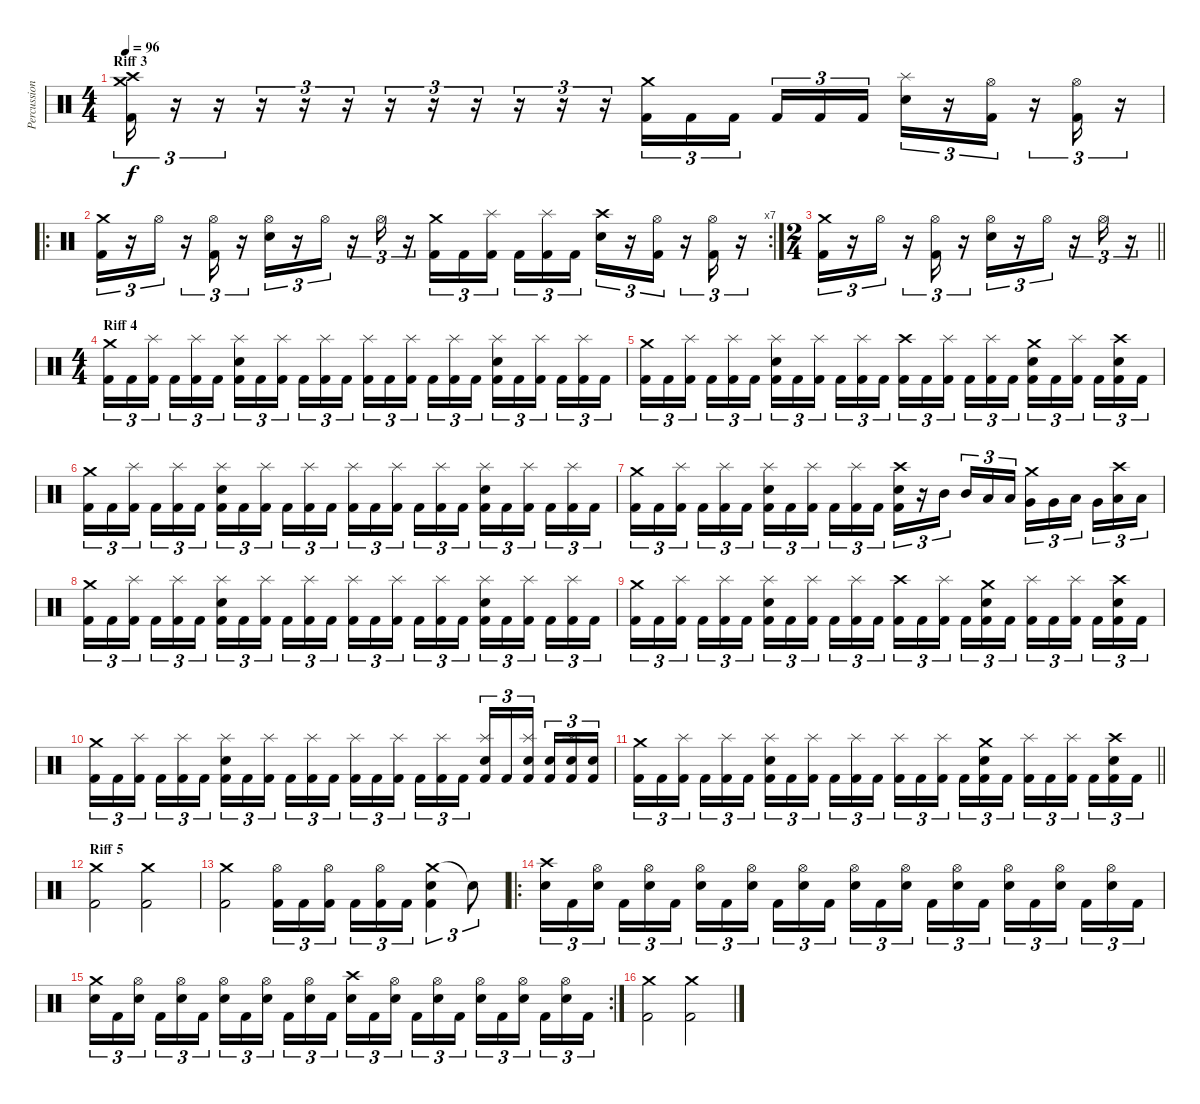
\track ("Percussions" "Percussion") {instrument percussion}
\staff {score}
\articulation defaults
\ts (4 4)
\section ("" "Riff 3")
\tempo 96
\clef neutral
\ks c
("Crash medium (hit)" "Crash high (hit)" "Kick (hit) 2").16{tu (3 2) dy f} r.16{tu (3 2)} r.16{tu (3 2)} r.16{tu (3 2)} r.16{tu (3 2)} r.16{tu (3 2)} r.16{tu (3 2)} r.16{tu (3 2)} r.16{tu (3 2)} r.16{tu (3 2)} r.16{tu (3 2)} r.16{tu (3 2)} ("Crash medium (hit)" "Kick (hit) 2").16{tu (3 2)} "Kick (hit) 2".16{tu (3 2)} "Kick (hit) 2".16{tu (3 2) beam splitsecondary} "Kick (hit) 2".16{tu (3 2)} "Kick (hit) 2".16{tu (3 2)} "Kick (hit) 2".16{tu (3 2)} ("Splash (hit)" "Snare (hit) 2").16{tu (3 2)} r.16{tu (3 2)} ("Hi-Hat (open)" "Kick (hit) 2").16{tu (3 2)} r.16{tu (3 2)} ("Hi-Hat (open)" "Kick (hit) 2").16{tu (3 2)} r.16{tu (3 2)} |
\ro
\rc 7
("Crash medium (hit)" "Kick (hit) 2").16{tu (3 2)} r.16{tu (3 2)} "Hi-Hat (open)".16{tu (3 2)} r.16{tu (3 2)} ("Hi-Hat (open)" "Kick (hit) 2").16{tu (3 2)} r.16{tu (3 2)} ("Hi-Hat (open)" "Snare (hit) 2").16{tu (3 2)} r.16{tu (3 2)} "Hi-Hat (open)".16{tu (3 2)} r.16{tu (3 2)} "Hi-Hat (open)".16{tu (3 2)} r.16{tu (3 2)} ("Crash medium (hit)" "Kick (hit) 2").16{tu (3 2)} "Kick (hit) 2".16{tu (3 2)} ("Splash (hit)" "Kick (hit) 2").16{tu (3 2) beam splitsecondary} "Kick (hit) 2".16{tu (3 2)} ("Splash (hit)" "Kick (hit) 2").16{tu (3 2)} "Kick (hit) 2".16{tu (3 2)} ("Crash high (hit)" "Snare (hit) 2").16{tu (3 2)} r.16{tu (3 2)} ("Hi-Hat (open)" "Kick (hit) 2").16{tu (3 2)} r.16{tu (3 2)} ("Hi-Hat (open)" "Kick (hit) 2").16{tu (3 2)} r.16{tu (3 2)} |
\ts (2 4)
\barLineRight lightlight
("Crash medium (hit)" "Kick (hit) 2").16{tu (3 2)} r.16{tu (3 2)} "Hi-Hat (open)".16{tu (3 2)} r.16{tu (3 2)} ("Hi-Hat (open)" "Kick (hit) 2").16{tu (3 2)} r.16{tu (3 2)} ("Hi-Hat (open)" "Snare (hit) 2").16{tu (3 2)} r.16{tu (3 2)} "Hi-Hat (open)".16{tu (3 2)} r.16{tu (3 2)} "Hi-Hat (open)".16{tu (3 2)} r.16{tu (3 2)} |
\ts (4 4)
\section ("" "Riff 4")
("Crash medium (hit)" "Kick (hit) 2").16{tu (3 2)} "Kick (hit) 2".16{tu (3 2)} ("Splash (hit)" "Kick (hit) 2").16{tu (3 2) beam splitsecondary} "Kick (hit) 2".16{tu (3 2)} ("Splash (hit)" "Kick (hit) 2").16{tu (3 2)} "Kick (hit) 2".16{tu (3 2)} ("Splash (hit)" "Snare (hit) 2" "Kick (hit) 2").16{tu (3 2)} "Kick (hit) 2".16{tu (3 2)} ("Splash (hit)" "Kick (hit) 2").16{tu (3 2) beam splitsecondary} "Kick (hit) 2".16{tu (3 2)} ("Splash (hit)" "Kick (hit) 2").16{tu (3 2)} "Kick (hit) 2".16{tu (3 2)} ("Splash (hit)" "Kick (hit) 2").16{tu (3 2)} "Kick (hit) 2".16{tu (3 2)} ("Splash (hit)" "Kick (hit) 2").16{tu (3 2) beam splitsecondary} "Kick (hit) 2".16{tu (3 2)} ("Splash (hit)" "Kick (hit) 2").16{tu (3 2)} "Kick (hit) 2".16{tu (3 2)} ("Splash (hit)" "Snare (hit) 2" "Kick (hit) 2").16{tu (3 2)} "Kick (hit) 2".16{tu (3 2)} ("Splash (hit)" "Kick (hit) 2").16{tu (3 2) beam splitsecondary} "Kick (hit) 2".16{tu (3 2)} ("Splash (hit)" "Kick (hit) 2").16{tu (3 2)} "Kick (hit) 2".16{tu (3 2)} |
("Crash medium (hit)" "Kick (hit) 2").16{tu (3 2)} "Kick (hit) 2".16{tu (3 2)} ("Splash (hit)" "Kick (hit) 2").16{tu (3 2) beam splitsecondary} "Kick (hit) 2".16{tu (3 2)} ("Splash (hit)" "Kick (hit) 2").16{tu (3 2)} "Kick (hit) 2".16{tu (3 2)} ("Splash (hit)" "Snare (hit) 2" "Kick (hit) 2").16{tu (3 2)} "Kick (hit) 2".16{tu (3 2)} ("Splash (hit)" "Kick (hit) 2").16{tu (3 2) beam splitsecondary} "Kick (hit) 2".16{tu (3 2)} ("Splash (hit)" "Kick (hit) 2").16{tu (3 2)} "Kick (hit) 2".16{tu (3 2)} ("Crash high (hit)" "Kick (hit) 2").16{tu (3 2)} "Kick (hit) 2".16{tu (3 2)} ("Splash (hit)" "Kick (hit) 2").16{tu (3 2) beam splitsecondary} "Kick (hit) 2".16{tu (3 2)} ("Splash (hit)" "Kick (hit) 2").16{tu (3 2)} "Kick (hit) 2".16{tu (3 2)} ("Crash medium (hit)" "Snare (hit) 2" "Kick (hit) 2").16{tu (3 2)} "Kick (hit) 2".16{tu (3 2)} ("Splash (hit)" "Kick (hit) 2").16{tu (3 2) beam splitsecondary} "Kick (hit) 2".16{tu (3 2)} ("Crash high (hit)" "Snare (hit) 2" "Kick (hit) 2").16{tu (3 2)} "Kick (hit) 2".16{tu (3 2)} |
("Crash medium (hit)" "Kick (hit) 2").16{tu (3 2)} "Kick (hit) 2".16{tu (3 2)} ("Splash (hit)" "Kick (hit) 2").16{tu (3 2) beam splitsecondary} "Kick (hit) 2".16{tu (3 2)} ("Splash (hit)" "Kick (hit) 2").16{tu (3 2)} "Kick (hit) 2".16{tu (3 2)} ("Splash (hit)" "Snare (hit) 2" "Kick (hit) 2").16{tu (3 2)} "Kick (hit) 2".16{tu (3 2)} ("Splash (hit)" "Kick (hit) 2").16{tu (3 2) beam splitsecondary} "Kick (hit) 2".16{tu (3 2)} ("Splash (hit)" "Kick (hit) 2").16{tu (3 2)} "Kick (hit) 2".16{tu (3 2)} ("Splash (hit)" "Kick (hit) 2").16{tu (3 2)} "Kick (hit) 2".16{tu (3 2)} ("Splash (hit)" "Kick (hit) 2").16{tu (3 2) beam splitsecondary} "Kick (hit) 2".16{tu (3 2)} ("Splash (hit)" "Kick (hit) 2").16{tu (3 2)} "Kick (hit) 2".16{tu (3 2)} ("Splash (hit)" "Snare (hit) 2" "Kick (hit) 2").16{tu (3 2)} "Kick (hit) 2".16{tu (3 2)} ("Splash (hit)" "Kick (hit) 2").16{tu (3 2) beam splitsecondary} "Kick (hit) 2".16{tu (3 2)} ("Splash (hit)" "Kick (hit) 2").16{tu (3 2)} "Kick (hit) 2".16{tu (3 2)} |
("Crash medium (hit)" "Kick (hit) 2").16{tu (3 2)} "Kick (hit) 2".16{tu (3 2)} ("Splash (hit)" "Kick (hit) 2").16{tu (3 2) beam splitsecondary} "Kick (hit) 2".16{tu (3 2)} ("Splash (hit)" "Kick (hit) 2").16{tu (3 2)} "Kick (hit) 2".16{tu (3 2)} ("Splash (hit)" "Snare (hit) 2" "Kick (hit) 2").16{tu (3 2)} "Kick (hit) 2".16{tu (3 2)} ("Splash (hit)" "Kick (hit) 2").16{tu (3 2) beam splitsecondary} "Kick (hit) 2".16{tu (3 2)} ("Splash (hit)" "Kick (hit) 2").16{tu (3 2)} "Kick (hit) 2".16{tu (3 2)} ("Crash high (hit)" "Snare (hit) 2" "Kick (hit) 2").16{tu (3 2)} r.16{tu (3 2)} "Mid Tom (hit)".16{tu (3 2) beam splitsecondary} "Mid Tom (hit)".16{tu (3 2)} "Low Tom (hit)".16{tu (3 2)} "Low Tom (hit)".16{tu (3 2)} ("Crash medium (hit)" "Very Low Tom (hit)").16{tu (3 2)} "Very Low Tom (hit)".16{tu (3 2)} "Low Tom (hit)".16{tu (3 2) beam splitsecondary} "Very Low Tom (hit)".16{tu (3 2)} ("Crash high (hit)" "Low Floor Tom (hit)").16{tu (3 2)} "Low Floor Tom (hit)".16{tu (3 2)} |
("Crash medium (hit)" "Kick (hit) 2").16{tu (3 2)} "Kick (hit) 2".16{tu (3 2)} ("Splash (hit)" "Kick (hit) 2").16{tu (3 2) beam splitsecondary} "Kick (hit) 2".16{tu (3 2)} ("Splash (hit)" "Kick (hit) 2").16{tu (3 2)} "Kick (hit) 2".16{tu (3 2)} ("Splash (hit)" "Snare (hit) 2" "Kick (hit) 2").16{tu (3 2)} "Kick (hit) 2".16{tu (3 2)} ("Splash (hit)" "Kick (hit) 2").16{tu (3 2) beam splitsecondary} "Kick (hit) 2".16{tu (3 2)} ("Splash (hit)" "Kick (hit) 2").16{tu (3 2)} "Kick (hit) 2".16{tu (3 2)} ("Splash (hit)" "Kick (hit) 2").16{tu (3 2)} "Kick (hit) 2".16{tu (3 2)} ("Splash (hit)" "Kick (hit) 2").16{tu (3 2) beam splitsecondary} "Kick (hit) 2".16{tu (3 2)} ("Splash (hit)" "Kick (hit) 2").16{tu (3 2)} "Kick (hit) 2".16{tu (3 2)} ("Splash (hit)" "Snare (hit) 2" "Kick (hit) 2").16{tu (3 2)} "Kick (hit) 2".16{tu (3 2)} ("Splash (hit)" "Kick (hit) 2").16{tu (3 2) beam splitsecondary} "Kick (hit) 2".16{tu (3 2)} ("Splash (hit)" "Kick (hit) 2").16{tu (3 2)} "Kick (hit) 2".16{tu (3 2)} |
("Crash medium (hit)" "Kick (hit) 2").16{tu (3 2)} "Kick (hit) 2".16{tu (3 2)} ("Splash (hit)" "Kick (hit) 2").16{tu (3 2) beam splitsecondary} "Kick (hit) 2".16{tu (3 2)} ("Splash (hit)" "Kick (hit) 2").16{tu (3 2)} "Kick (hit) 2".16{tu (3 2)} ("Splash (hit)" "Snare (hit) 2" "Kick (hit) 2").16{tu (3 2)} "Kick (hit) 2".16{tu (3 2)} ("Splash (hit)" "Kick (hit) 2").16{tu (3 2) beam splitsecondary} "Kick (hit) 2".16{tu (3 2)} ("Splash (hit)" "Kick (hit) 2").16{tu (3 2)} "Kick (hit) 2".16{tu (3 2)} ("Crash high (hit)" "Kick (hit) 2").16{tu (3 2)} "Kick (hit) 2".16{tu (3 2)} ("Splash (hit)" "Kick (hit) 2").16{tu (3 2) beam splitsecondary} "Kick (hit) 2".16{tu (3 2)} ("Crash medium (hit)" "Snare (hit) 2" "Kick (hit) 2").16{tu (3 2)} "Kick (hit) 2".16{tu (3 2)} ("Splash (hit)" "Kick (hit) 2").16{tu (3 2)} "Kick (hit) 2".16{tu (3 2)} ("Splash (hit)" "Kick (hit) 2").16{tu (3 2) beam splitsecondary} "Kick (hit) 2".16{tu (3 2)} ("Crash high (hit)" "Snare (hit) 2" "Kick (hit) 2").16{tu (3 2)} "Kick (hit) 2".16{tu (3 2)} |
("Crash medium (hit)" "Kick (hit) 2").16{tu (3 2)} "Kick (hit) 2".16{tu (3 2)} ("Splash (hit)" "Kick (hit) 2").16{tu (3 2) beam splitsecondary} "Kick (hit) 2".16{tu (3 2)} ("Splash (hit)" "Kick (hit) 2").16{tu (3 2)} "Kick (hit) 2".16{tu (3 2)} ("Splash (hit)" "Snare (hit) 2" "Kick (hit) 2").16{tu (3 2)} "Kick (hit) 2".16{tu (3 2)} ("Splash (hit)" "Kick (hit) 2").16{tu (3 2) beam splitsecondary} "Kick (hit) 2".16{tu (3 2)} ("Splash (hit)" "Kick (hit) 2").16{tu (3 2)} "Kick (hit) 2".16{tu (3 2)} ("Splash (hit)" "Kick (hit) 2").16{tu (3 2)} "Kick (hit) 2".16{tu (3 2)} ("Splash (hit)" "Kick (hit) 2").16{tu (3 2) beam splitsecondary} "Kick (hit) 2".16{tu (3 2)} ("Splash (hit)" "Kick (hit) 2").16{tu (3 2)} "Kick (hit) 2".16{tu (3 2)} ("Splash (hit)" "Snare (hit) 2" "Kick (hit) 2").16{tu (3 2)} "Kick (hit) 2".16{tu (3 2)} ("Splash (hit)" "Snare (hit) 2" "Kick (hit) 2").16{tu (3 2) beam splitsecondary} ("Snare (hit) 2" "Kick (hit) 2").16{tu (3 2)} ("Splash (hit)" "Snare (hit) 2" "Kick (hit) 2").16{tu (3 2)} ("Snare (hit) 2" "Kick (hit) 2").16{tu (3 2)} |
\barLineRight lightlight
("Crash medium (hit)" "Kick (hit) 2").16{tu (3 2)} "Kick (hit) 2".16{tu (3 2)} ("Splash (hit)" "Kick (hit) 2").16{tu (3 2) beam splitsecondary} "Kick (hit) 2".16{tu (3 2)} ("Splash (hit)" "Kick (hit) 2").16{tu (3 2)} "Kick (hit) 2".16{tu (3 2)} ("Splash (hit)" "Snare (hit) 2" "Kick (hit) 2").16{tu (3 2)} "Kick (hit) 2".16{tu (3 2)} ("Splash (hit)" "Kick (hit) 2").16{tu (3 2) beam splitsecondary} "Kick (hit) 2".16{tu (3 2)} ("Splash (hit)" "Kick (hit) 2").16{tu (3 2)} "Kick (hit) 2".16{tu (3 2)} ("Splash (hit)" "Kick (hit) 2").16{tu (3 2)} "Kick (hit) 2".16{tu (3 2)} ("Splash (hit)" "Kick (hit) 2").16{tu (3 2) beam splitsecondary} "Kick (hit) 2".16{tu (3 2)} ("Crash medium (hit)" "Snare (hit) 2" "Kick (hit) 2").16{tu (3 2)} "Kick (hit) 2".16{tu (3 2)} ("Splash (hit)" "Kick (hit) 2").16{tu (3 2)} "Kick (hit) 2".16{tu (3 2)} ("Splash (hit)" "Kick (hit) 2").16{tu (3 2) beam splitsecondary} "Kick (hit) 2".16{tu (3 2)} ("Crash high (hit)" "Snare (hit) 2" "Kick (hit) 2").16{tu (3 2)} "Kick (hit) 2".16{tu (3 2)} |
\section ("" "Riff 5")
("Crash medium (hit)" "Kick (hit) 2").2 ("Crash medium (hit)" "Kick (hit) 2").2 |
("Crash medium (hit)" "Kick (hit) 2").2 ("Hi-Hat (open)" "Kick (hit) 2").16{tu (3 2)} "Kick (hit) 2".16{tu (3 2)} ("Hi-Hat (open)" "Kick (hit) 2").16{tu (3 2) beam splitsecondary} "Kick (hit) 2".16{tu (3 2)} ("Hi-Hat (open)" "Kick (hit) 2").16{tu (3 2)} "Kick (hit) 2".16{tu (3 2)} ("Crash medium (hit)" "Snare (hit) 2" "Kick (hit) 2").4{tu (3 2)} "Snare (hit)"{t}.8{tu (3 2)} |
\ro
("Crash high (hit)" "Snare (hit) 2").16{tu (3 2)} "Kick (hit) 2".16{tu (3 2)} ("Hi-Hat (open)" "Snare (hit) 2").16{tu (3 2) beam splitsecondary} "Kick (hit) 2".16{tu (3 2)} ("Hi-Hat (open)" "Snare (hit) 2").16{tu (3 2)} "Kick (hit) 2".16{tu (3 2)} ("Hi-Hat (open)" "Snare (hit) 2").16{tu (3 2)} "Kick (hit) 2".16{tu (3 2)} ("Hi-Hat (open)" "Snare (hit) 2").16{tu (3 2) beam splitsecondary} "Kick (hit) 2".16{tu (3 2)} ("Hi-Hat (open)" "Snare (hit) 2").16{tu (3 2)} "Kick (hit) 2".16{tu (3 2)} ("Hi-Hat (open)" "Snare (hit) 2").16{tu (3 2)} "Kick (hit) 2".16{tu (3 2)} ("Hi-Hat (open)" "Snare (hit) 2").16{tu (3 2) beam splitsecondary} "Kick (hit) 2".16{tu (3 2)} ("Hi-Hat (open)" "Snare (hit) 2").16{tu (3 2)} "Kick (hit) 2".16{tu (3 2)} ("Hi-Hat (open)" "Snare (hit) 2").16{tu (3 2)} "Kick (hit) 2".16{tu (3 2)} ("Hi-Hat (open)" "Snare (hit) 2").16{tu (3 2) beam splitsecondary} "Kick (hit) 2".16{tu (3 2)} ("Hi-Hat (open)" "Snare (hit) 2").16{tu (3 2)} "Kick (hit) 2".16{tu (3 2)} |
\rc 2
("Crash medium (hit)" "Snare (hit) 2").16{tu (3 2)} "Kick (hit) 2".16{tu (3 2)} ("Hi-Hat (open)" "Snare (hit) 2").16{tu (3 2) beam splitsecondary} "Kick (hit) 2".16{tu (3 2)} ("Hi-Hat (open)" "Snare (hit) 2").16{tu (3 2)} "Kick (hit) 2".16{tu (3 2)} ("Hi-Hat (open)" "Snare (hit) 2").16{tu (3 2)} "Kick (hit) 2".16{tu (3 2)} ("Hi-Hat (open)" "Snare (hit) 2").16{tu (3 2) beam splitsecondary} "Kick (hit) 2".16{tu (3 2)} ("Hi-Hat (open)" "Snare (hit) 2").16{tu (3 2)} "Kick (hit) 2".16{tu (3 2)} ("Crash high (hit)" "Snare (hit) 2").16{tu (3 2)} "Kick (hit) 2".16{tu (3 2)} ("Hi-Hat (open)" "Snare (hit) 2").16{tu (3 2) beam splitsecondary} "Kick (hit) 2".16{tu (3 2)} ("Hi-Hat (open)" "Snare (hit) 2").16{tu (3 2)} "Kick (hit) 2".16{tu (3 2)} ("Hi-Hat (open)" "Snare (hit) 2").16{tu (3 2)} "Kick (hit) 2".16{tu (3 2)} ("Hi-Hat (open)" "Snare (hit) 2").16{tu (3 2) beam splitsecondary} "Kick (hit) 2".16{tu (3 2)} ("Hi-Hat (open)" "Snare (hit) 2").16{tu (3 2)} "Kick (hit) 2".16{tu (3 2)} |
("Crash medium (hit)" "Kick (hit) 2").2 ("Crash medium (hit)" "Kick (hit) 2").2
